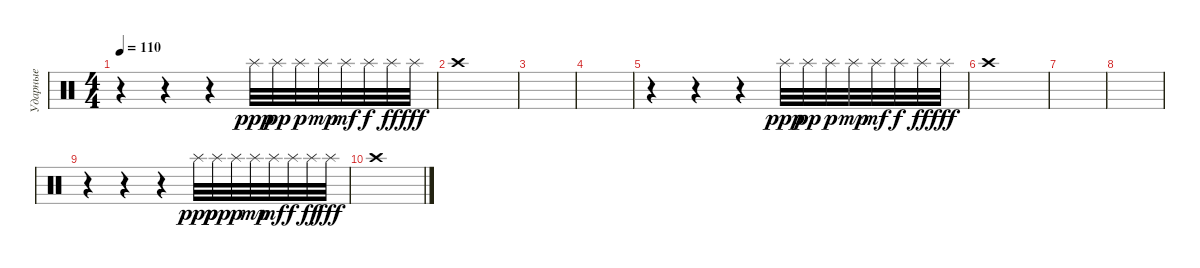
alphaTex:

\track ("Ударные" "Ударные") {instrument percussion}
\staff {score}
\articulation defaults
\ts (4 4)
\tempo 110
\clef neutral
\ks c
r.4{dy fff} r.4 r.4 "Splash (hit)".32{dy ppp} "Splash (hit)".32{dy pp} "Splash (hit)".32{dy p} "Splash (hit)".32{dy mp} "Splash (hit)".32{dy mf} "Splash (hit)".32{dy f} "Splash (hit)".32{dy ff} "Splash (hit)".32{dy fff} |
"Crash high (hit)".1 |
|
|
r.4 r.4 r.4 "Splash (hit)".32{dy ppp} "Splash (hit)".32{dy pp} "Splash (hit)".32{dy p} "Splash (hit)".32{dy mp} "Splash (hit)".32{dy mf} "Splash (hit)".32{dy f} "Splash (hit)".32{dy ff} "Splash (hit)".32{dy fff} |
"Crash high (hit)".1 |
|
|
r.4 r.4 r.4 "Splash (hit)".32{dy ppp} "Splash (hit)".32{dy pp} "Splash (hit)".32{dy p} "Splash (hit)".32{dy mp} "Splash (hit)".32{dy mf} "Splash (hit)".32{dy f} "Splash (hit)".32{dy ff} "Splash (hit)".32{dy fff} |
"Crash high (hit)".1
